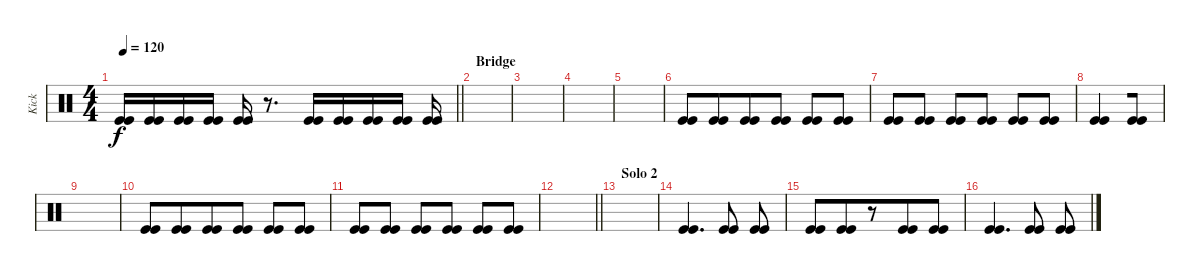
\track ("Kick" "Kick") {instrument percussion}
\staff {score}
\articulation defaults
\ts (4 4)
\tempo 120
\clef neutral
\barLineRight lightlight
\ks c
("Kick (hit)" "Kick (hit)").16{dy f} ("Kick (hit)" "Kick (hit)").16 ("Kick (hit)" "Kick (hit)").16 ("Kick (hit)" "Kick (hit)").16 ("Kick (hit)" "Kick (hit)").16 r.8{d beam merge} ("Kick (hit)" "Kick (hit)").16 ("Kick (hit)" "Kick (hit)").16{beam merge} ("Kick (hit)" "Kick (hit)").16{beam merge} ("Kick (hit)" "Kick (hit)").16 ("Kick (hit)" "Kick (hit)").16 |
\section ("" "Bridge")
|
|
|
|
("Kick (hit)" "Kick (hit)").8{beam merge} ("Kick (hit)" "Kick (hit)").8{beam merge} ("Kick (hit)" "Kick (hit)").8 ("Kick (hit)" "Kick (hit)").8 ("Kick (hit)" "Kick (hit)").8{beam merge} ("Kick (hit)" "Kick (hit)").8 |
("Kick (hit)" "Kick (hit)").8 ("Kick (hit)" "Kick (hit)").8 ("Kick (hit)" "Kick (hit)").8{beam merge} ("Kick (hit)" "Kick (hit)").8 ("Kick (hit)" "Kick (hit)").8 ("Kick (hit)" "Kick (hit)").8 |
("Kick (hit)" "Kick (hit)").4{beam merge} ("Kick (hit)" "Kick (hit)").8 |
|
("Kick (hit)" "Kick (hit)").8{beam merge} ("Kick (hit)" "Kick (hit)").8{beam merge} ("Kick (hit)" "Kick (hit)").8 ("Kick (hit)" "Kick (hit)").8 ("Kick (hit)" "Kick (hit)").8{beam merge} ("Kick (hit)" "Kick (hit)").8 |
("Kick (hit)" "Kick (hit)").8 ("Kick (hit)" "Kick (hit)").8 ("Kick (hit)" "Kick (hit)").8{beam merge} ("Kick (hit)" "Kick (hit)").8 ("Kick (hit)" "Kick (hit)").8 ("Kick (hit)" "Kick (hit)").8 |
\barLineRight lightlight
|
\section ("" "Solo 2")
|
("Kick (hit)" "Kick (hit)").4{d} ("Kick (hit)" "Kick (hit)").8 ("Kick (hit)" "Kick (hit)").8 |
("Kick (hit)" "Kick (hit)").8 ("Kick (hit)" "Kick (hit)").8{beam merge} r.8 ("Kick (hit)" "Kick (hit)").8{beam merge} ("Kick (hit)" "Kick (hit)").8 |
("Kick (hit)" "Kick (hit)").4{d} ("Kick (hit)" "Kick (hit)").8 ("Kick (hit)" "Kick (hit)").8
